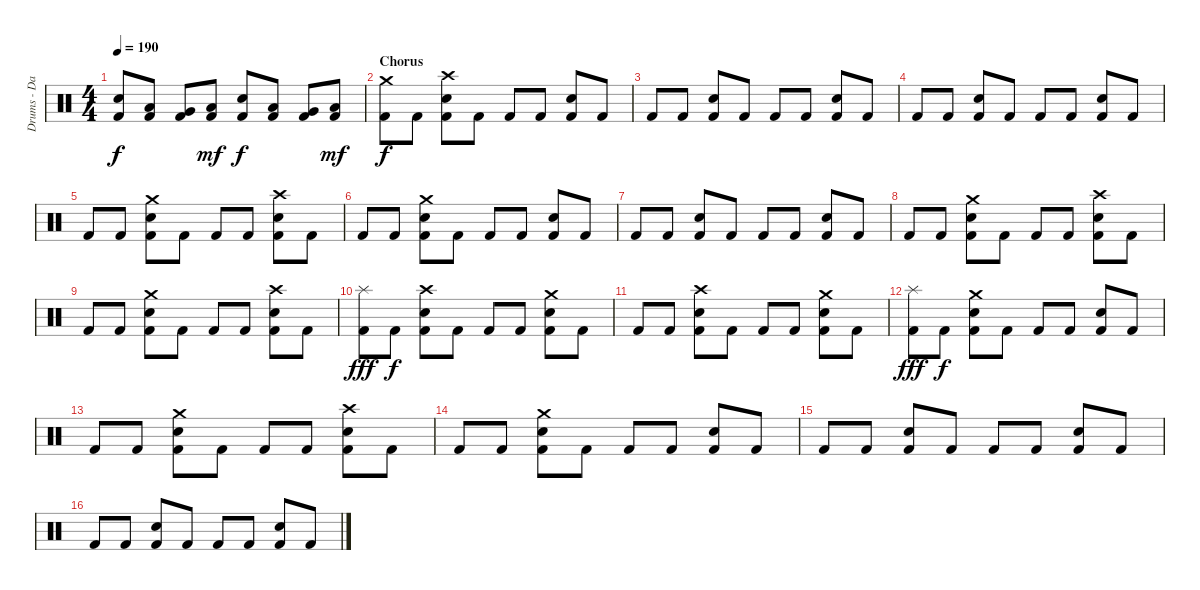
\track ("Drums - Daniel Zimmermann" "Drums - Da") {instrument percussion}
\staff {score}
\articulation defaults
\ts (4 4)
\tempo 190
\clef neutral
\ks c
("Kick (hit) 2" "Electric Snare (hit)").8{dy f} ("Kick (hit) 2" "Low Tom (hit)").8 ("Kick (hit) 2" "Very Low Tom (hit)").8 ("Kick (hit) 2" "Low Floor Tom (hit)").8{dy mf} ("Kick (hit) 2" "Electric Snare (hit)").8{dy f} ("Kick (hit) 2" "Low Tom (hit)").8 ("Kick (hit) 2" "Very Low Tom (hit)").8 ("Kick (hit) 2" "Low Floor Tom (hit)").8{dy mf} |
\section ("" "Chorus")
("Kick (hit) 2" "Crash medium (hit)").8{dy f} "Kick (hit) 2".8 ("Kick (hit) 2" "Electric Snare (hit)" "Crash high (hit)").8 "Kick (hit) 2".8 "Kick (hit) 2".8 "Kick (hit) 2".8 ("Kick (hit) 2" "Electric Snare (hit)").8 "Kick (hit) 2".8 |
"Kick (hit) 2".8 "Kick (hit) 2".8 ("Kick (hit) 2" "Electric Snare (hit)").8 "Kick (hit) 2".8 "Kick (hit) 2".8 "Kick (hit) 2".8 ("Kick (hit) 2" "Electric Snare (hit)").8 "Kick (hit) 2".8 |
"Kick (hit) 2".8 "Kick (hit) 2".8 ("Kick (hit) 2" "Electric Snare (hit)").8 "Kick (hit) 2".8 "Kick (hit) 2".8 "Kick (hit) 2".8 ("Kick (hit) 2" "Electric Snare (hit)").8 "Kick (hit) 2".8 |
"Kick (hit) 2".8 "Kick (hit) 2".8 ("Kick (hit) 2" "Electric Snare (hit)" "Crash medium (hit)").8 "Kick (hit) 2".8 "Kick (hit) 2".8 "Kick (hit) 2".8 ("Kick (hit) 2" "Electric Snare (hit)" "Crash high (hit)").8 "Kick (hit) 2".8 |
"Kick (hit) 2".8 "Kick (hit) 2".8 ("Kick (hit) 2" "Electric Snare (hit)" "Crash medium (hit)").8 "Kick (hit) 2".8 "Kick (hit) 2".8 "Kick (hit) 2".8 ("Kick (hit) 2" "Electric Snare (hit)").8 "Kick (hit) 2".8 |
"Kick (hit) 2".8 "Kick (hit) 2".8 ("Kick (hit) 2" "Electric Snare (hit)").8 "Kick (hit) 2".8 "Kick (hit) 2".8 "Kick (hit) 2".8 ("Kick (hit) 2" "Electric Snare (hit)").8 "Kick (hit) 2".8 |
"Kick (hit) 2".8 "Kick (hit) 2".8 ("Kick (hit) 2" "Electric Snare (hit)" "Crash medium (hit)").8 "Kick (hit) 2".8 "Kick (hit) 2".8 "Kick (hit) 2".8 ("Kick (hit) 2" "Electric Snare (hit)" "Crash high (hit)").8 "Kick (hit) 2".8 |
"Kick (hit) 2".8 "Kick (hit) 2".8 ("Kick (hit) 2" "Electric Snare (hit)" "Crash medium (hit)").8 "Kick (hit) 2".8 "Kick (hit) 2".8 "Kick (hit) 2".8 ("Kick (hit) 2" "Electric Snare (hit)" "Crash high (hit)").8 "Kick (hit) 2".8 |
("Kick (hit) 2" "Splash (hit)").8{dy fff} "Kick (hit) 2".8{dy f} ("Kick (hit) 2" "Electric Snare (hit)" "Crash high (hit)").8 "Kick (hit) 2".8 "Kick (hit) 2".8 "Kick (hit) 2".8 ("Kick (hit) 2" "Electric Snare (hit)" "Crash medium (hit)").8 "Kick (hit) 2".8 |
"Kick (hit) 2".8 "Kick (hit) 2".8 ("Kick (hit) 2" "Electric Snare (hit)" "Crash high (hit)").8 "Kick (hit) 2".8 "Kick (hit) 2".8 "Kick (hit) 2".8 ("Kick (hit) 2" "Electric Snare (hit)" "Crash medium (hit)").8 "Kick (hit) 2".8 |
("Kick (hit) 2" "Splash (hit)").8{dy fff} "Kick (hit) 2".8{dy f} ("Kick (hit) 2" "Electric Snare (hit)" "Crash medium (hit)").8 "Kick (hit) 2".8 "Kick (hit) 2".8 "Kick (hit) 2".8 ("Kick (hit) 2" "Electric Snare (hit)").8 "Kick (hit) 2".8 |
"Kick (hit) 2".8 "Kick (hit) 2".8 ("Kick (hit) 2" "Electric Snare (hit)" "Crash medium (hit)").8 "Kick (hit) 2".8 "Kick (hit) 2".8 "Kick (hit) 2".8 ("Kick (hit) 2" "Electric Snare (hit)" "Crash high (hit)").8 "Kick (hit) 2".8 |
"Kick (hit) 2".8 "Kick (hit) 2".8 ("Kick (hit) 2" "Electric Snare (hit)" "Crash medium (hit)").8 "Kick (hit) 2".8 "Kick (hit) 2".8 "Kick (hit) 2".8 ("Kick (hit) 2" "Electric Snare (hit)").8 "Kick (hit) 2".8 |
"Kick (hit) 2".8 "Kick (hit) 2".8 ("Kick (hit) 2" "Electric Snare (hit)").8 "Kick (hit) 2".8 "Kick (hit) 2".8 "Kick (hit) 2".8 ("Kick (hit) 2" "Electric Snare (hit)").8 "Kick (hit) 2".8 |
"Kick (hit) 2".8 "Kick (hit) 2".8 ("Kick (hit) 2" "Electric Snare (hit)").8 "Kick (hit) 2".8 "Kick (hit) 2".8 "Kick (hit) 2".8 ("Kick (hit) 2" "Electric Snare (hit)").8 "Kick (hit) 2".8
